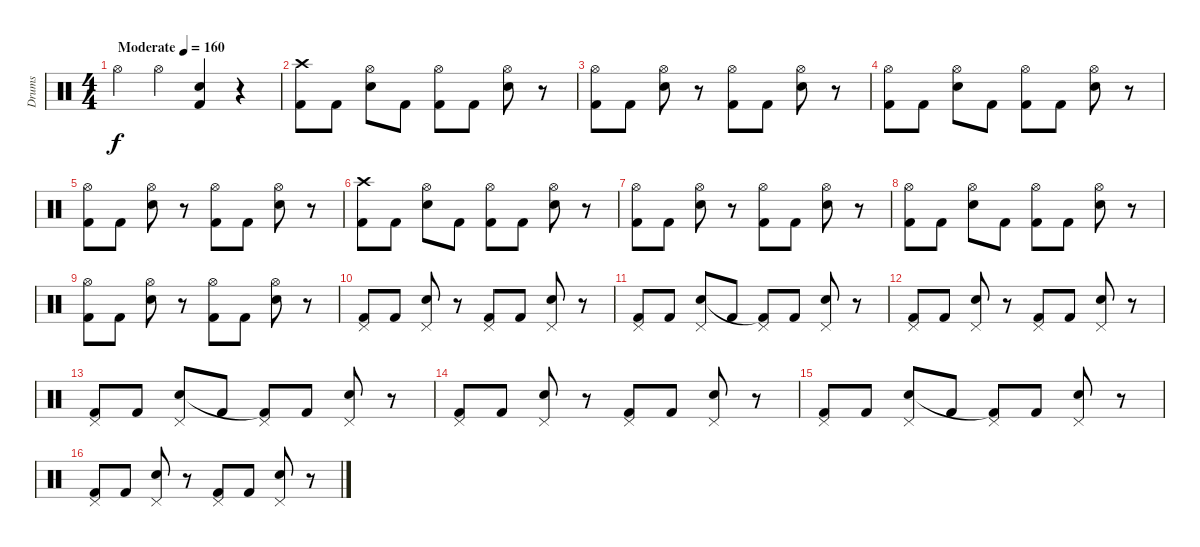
\track ("Drums" "Drums") {instrument percussion}
\staff {score}
\articulation defaults
\ts (4 4)
\tempo (160 "Moderate")
\clef neutral
\ks c "Hi-Hat (open)".4{dy f} "Hi-Hat (open)".4
("Snare (hit) 2" "Kick (hit) 2").4 r.4 |
("Crash high (hit)" "Kick (hit) 2").8 "Kick (hit) 2".8 ("Hi-Hat (open)" "Snare (hit) 2").8 "Kick (hit) 2".8 ("Hi-Hat (open)" "Kick (hit) 2").8 "Kick (hit) 2".8 ("Hi-Hat (open)" "Snare (hit) 2").8 r.8 |
("Hi-Hat (open)" "Kick (hit) 2").8 "Kick (hit) 2".8 ("Hi-Hat (open)" "Snare (hit) 2").8 r.8 ("Hi-Hat (open)" "Kick (hit) 2").8 "Kick (hit) 2".8 ("Hi-Hat (open)" "Snare (hit) 2").8 r.8 |
("Hi-Hat (open)" "Kick (hit) 2").8 "Kick (hit) 2".8 ("Hi-Hat (open)" "Snare (hit) 2").8 "Kick (hit) 2".8 ("Hi-Hat (open)" "Kick (hit) 2").8 "Kick (hit) 2".8 ("Hi-Hat (open)" "Snare (hit) 2").8 r.8 |
("Hi-Hat (open)" "Kick (hit) 2").8 "Kick (hit) 2".8 ("Hi-Hat (open)" "Snare (hit) 2").8 r.8 ("Hi-Hat (open)" "Kick (hit) 2").8 "Kick (hit) 2".8 ("Hi-Hat (open)" "Snare (hit) 2").8 r.8 |
("Crash high (hit)" "Kick (hit) 2").8 "Kick (hit) 2".8 ("Hi-Hat (open)" "Snare (hit) 2").8 "Kick (hit) 2".8 ("Hi-Hat (open)" "Kick (hit) 2").8 "Kick (hit) 2".8 ("Hi-Hat (open)" "Snare (hit) 2").8 r.8 |
("Hi-Hat (open)" "Kick (hit) 2").8 "Kick (hit) 2".8 ("Hi-Hat (open)" "Snare (hit) 2").8 r.8 ("Hi-Hat (open)" "Kick (hit) 2").8 "Kick (hit) 2".8 ("Hi-Hat (open)" "Snare (hit) 2").8 r.8 |
("Hi-Hat (open)" "Kick (hit) 2").8 "Kick (hit) 2".8 ("Hi-Hat (open)" "Snare (hit) 2").8 "Kick (hit) 2".8 ("Hi-Hat (open)" "Kick (hit) 2").8 "Kick (hit) 2".8 ("Hi-Hat (open)" "Snare (hit) 2").8 r.8 |
("Hi-Hat (open)" "Kick (hit) 2").8 "Kick (hit) 2".8 ("Hi-Hat (open)" "Snare (hit) 2").8 r.8 ("Hi-Hat (open)" "Kick (hit) 2").8 "Kick (hit) 2".8 ("Hi-Hat (open)" "Snare (hit) 2").8 r.8 |
("Pedal Hi-Hat (hit)" "Kick (hit) 2").8 "Kick (hit) 2".8 ("Pedal Hi-Hat (hit)" "Snare (hit) 2").8 r.8 ("Pedal Hi-Hat (hit)" "Kick (hit) 2").8 "Kick (hit) 2".8 ("Pedal Hi-Hat (hit)" "Snare (hit) 2").8 r.8 |
("Pedal Hi-Hat (hit)" "Kick (hit) 2").8 "Kick (hit) 2".8 ("Pedal Hi-Hat (hit)" "Snare (hit) 2").8 "Kick (hit) 2".8 ("Pedal Hi-Hat (hit)" "Kick (hit) 2"{t}).8 "Kick (hit) 2".8 ("Pedal Hi-Hat (hit)" "Snare (hit) 2").8 r.8 |
("Pedal Hi-Hat (hit)" "Kick (hit) 2").8 "Kick (hit) 2".8 ("Pedal Hi-Hat (hit)" "Snare (hit) 2").8 r.8 ("Pedal Hi-Hat (hit)" "Kick (hit) 2").8 "Kick (hit) 2".8 ("Pedal Hi-Hat (hit)" "Snare (hit) 2").8 r.8 |
("Pedal Hi-Hat (hit)" "Kick (hit) 2").8 "Kick (hit) 2".8 ("Pedal Hi-Hat (hit)" "Snare (hit) 2").8 "Kick (hit) 2".8 ("Pedal Hi-Hat (hit)" "Kick (hit) 2"{t}).8 "Kick (hit) 2".8 ("Pedal Hi-Hat (hit)" "Snare (hit) 2").8 r.8 |
("Pedal Hi-Hat (hit)" "Kick (hit) 2").8 "Kick (hit) 2".8 ("Pedal Hi-Hat (hit)" "Snare (hit) 2").8 r.8 ("Pedal Hi-Hat (hit)" "Kick (hit) 2").8 "Kick (hit) 2".8 ("Pedal Hi-Hat (hit)" "Snare (hit) 2").8 r.8 |
("Pedal Hi-Hat (hit)" "Kick (hit) 2").8 "Kick (hit) 2".8 ("Pedal Hi-Hat (hit)" "Snare (hit) 2").8 "Kick (hit) 2".8 ("Pedal Hi-Hat (hit)" "Kick (hit) 2"{t}).8 "Kick (hit) 2".8 ("Pedal Hi-Hat (hit)" "Snare (hit) 2").8 r.8 |
("Pedal Hi-Hat (hit)" "Kick (hit) 2").8 "Kick (hit) 2".8 ("Pedal Hi-Hat (hit)" "Snare (hit) 2").8 r.8 ("Pedal Hi-Hat (hit)" "Kick (hit) 2").8 "Kick (hit) 2".8 ("Pedal Hi-Hat (hit)" "Snare (hit) 2").8 r.8
